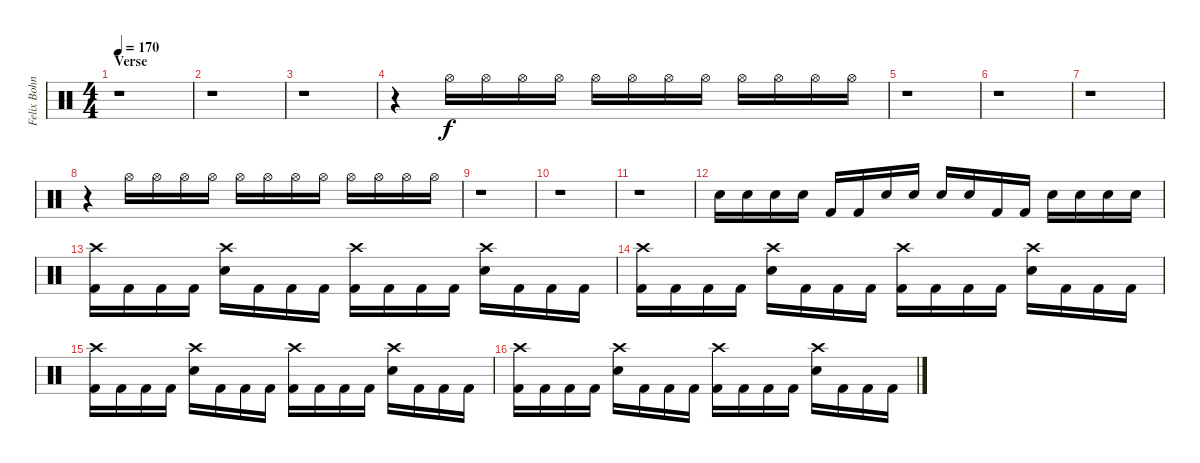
\track ("Felix Bohnke - Drums" "Felix Bohn") {instrument percussion}
\staff {score}
\articulation defaults
\ts (4 4)
\section ("" "Verse")
\tempo 170
\clef neutral
\ks c
r.1{dy f} |
r.1 |
r.1 |
r.4 "Hi-Hat (open)".16{volume 1} "Hi-Hat (open)".16{volume 3} "Hi-Hat (open)".16{volume 4} "Hi-Hat (open)".16{volume 6} "Hi-Hat (open)".16{volume 7} "Hi-Hat (open)".16{volume 8} "Hi-Hat (open)".16{volume 9} "Hi-Hat (open)".16{volume 10} "Hi-Hat (open)".16{volume 12} "Hi-Hat (open)".16{volume 13} "Hi-Hat (open)".16{volume 14} "Hi-Hat (open)".16{volume 16} |
r.1 |
r.1 |
r.1 |
r.4 "Hi-Hat (open)".16{volume 1} "Hi-Hat (open)".16{volume 3} "Hi-Hat (open)".16{volume 4} "Hi-Hat (open)".16{volume 6} "Hi-Hat (open)".16{volume 7} "Hi-Hat (open)".16{volume 8} "Hi-Hat (open)".16{volume 9} "Hi-Hat (open)".16{volume 10} "Hi-Hat (open)".16{volume 12} "Hi-Hat (open)".16{volume 13} "Hi-Hat (open)".16{volume 14} "Hi-Hat (open)".16{volume 16} |
r.1 |
r.1 |
r.1 |
"Electric Snare (hit)".16 "Electric Snare (hit)".16 "Electric Snare (hit)".16 "Electric Snare (hit)".16 "Kick (hit) 2".16 "Kick (hit) 2".16 "Electric Snare (hit)".16 "Electric Snare (hit)".16 "Electric Snare (hit)".16 "Electric Snare (hit)".16 "Kick (hit) 2".16 "Kick (hit) 2".16 "Electric Snare (hit)".16 "Electric Snare (hit)".16 "Electric Snare (hit)".16 "Electric Snare (hit)".16 |
("Crash high (hit)" "Kick (hit) 2").16 "Kick (hit) 2".16 "Kick (hit) 2".16 "Kick (hit) 2".16 ("Crash high (hit)" "Electric Snare (hit)").16 "Kick (hit) 2".16 "Kick (hit) 2".16 "Kick (hit) 2".16 ("Crash high (hit)" "Kick (hit) 2").16 "Kick (hit) 2".16 "Kick (hit) 2".16 "Kick (hit) 2".16 ("Crash high (hit)" "Electric Snare (hit)").16 "Kick (hit) 2".16 "Kick (hit) 2".16 "Kick (hit) 2".16 |
("Crash high (hit)" "Kick (hit) 2").16 "Kick (hit) 2".16 "Kick (hit) 2".16 "Kick (hit) 2".16 ("Crash high (hit)" "Electric Snare (hit)").16 "Kick (hit) 2".16 "Kick (hit) 2".16 "Kick (hit) 2".16 ("Crash high (hit)" "Kick (hit) 2").16 "Kick (hit) 2".16 "Kick (hit) 2".16 "Kick (hit) 2".16 ("Crash high (hit)" "Electric Snare (hit)").16 "Kick (hit) 2".16 "Kick (hit) 2".16 "Kick (hit) 2".16 |
("Crash high (hit)" "Kick (hit) 2").16 "Kick (hit) 2".16 "Kick (hit) 2".16 "Kick (hit) 2".16 ("Crash high (hit)" "Electric Snare (hit)").16 "Kick (hit) 2".16 "Kick (hit) 2".16 "Kick (hit) 2".16 ("Crash high (hit)" "Kick (hit) 2").16 "Kick (hit) 2".16 "Kick (hit) 2".16 "Kick (hit) 2".16 ("Crash high (hit)" "Electric Snare (hit)").16 "Kick (hit) 2".16 "Kick (hit) 2".16 "Kick (hit) 2".16 |
("Crash high (hit)" "Kick (hit) 2").16 "Kick (hit) 2".16 "Kick (hit) 2".16 "Kick (hit) 2".16 ("Crash high (hit)" "Electric Snare (hit)").16 "Kick (hit) 2".16 "Kick (hit) 2".16 "Kick (hit) 2".16 ("Crash high (hit)" "Kick (hit) 2").16 "Kick (hit) 2".16 "Kick (hit) 2".16 "Kick (hit) 2".16 ("Crash high (hit)" "Electric Snare (hit)").16 "Kick (hit) 2".16 "Kick (hit) 2".16 "Kick (hit) 2".16
